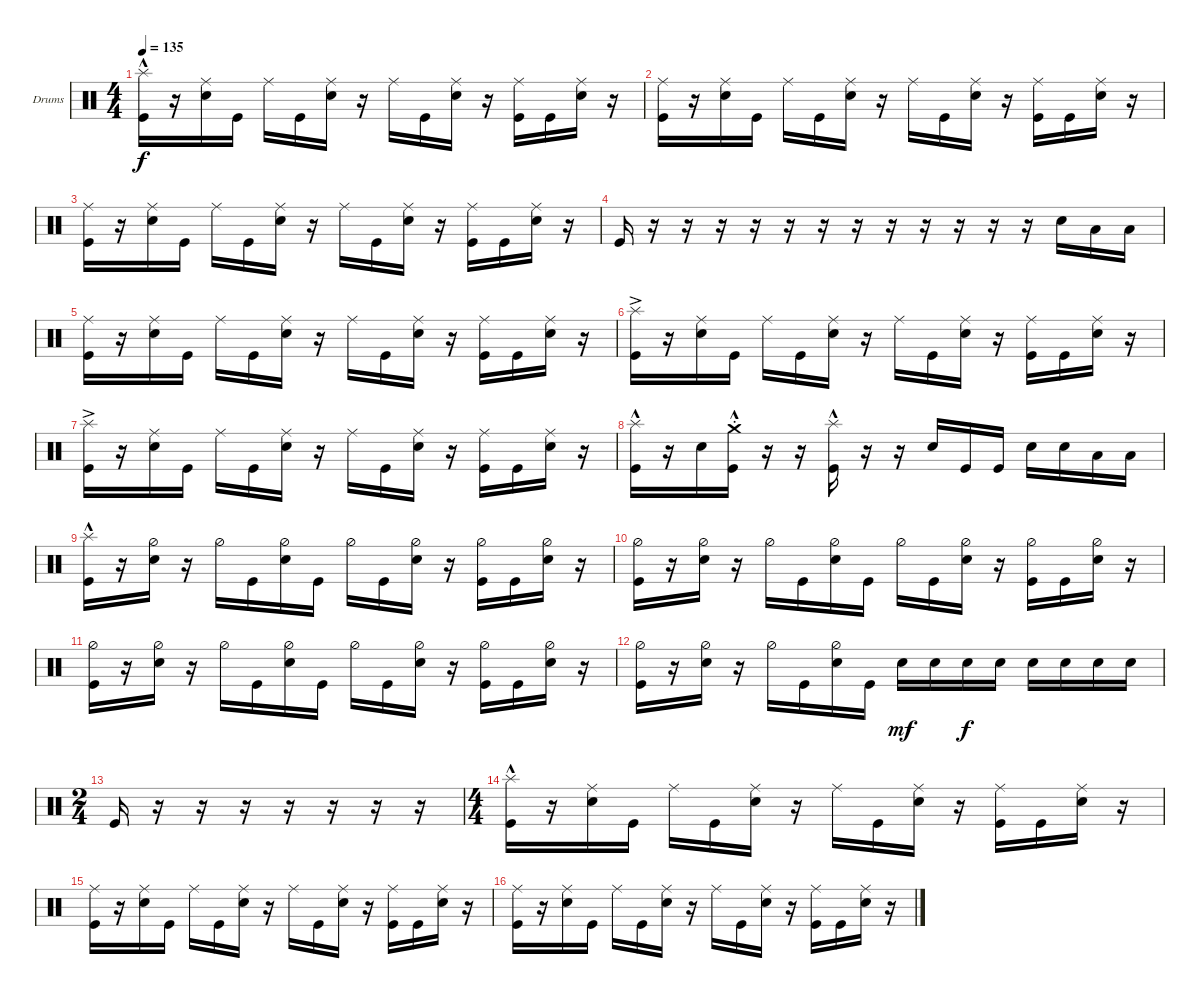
\defaultSystemsLayout 4
\bracketExtendMode groupsimilarinstruments
\firstSystemTrackNameOrientation horizontal
\otherSystemsTrackNameOrientation horizontal
\track ("Drumkit" "Drums") {instrument percussion}
\staff {score}
\articulation defaults
\ts (4 4)
\tempo 135
\clef neutral
\ks c
("Kick (hit)" "Splash (hit)"{hac}).16{dy f} r.16 ("Snare (hit) 2" "Ride (middle)").16 "Kick (hit)".16 "Ride (middle)".16 "Kick (hit)".16 ("Snare (hit) 2" "Ride (middle)").16 r.16 "Ride (middle)".16 "Kick (hit)".16 ("Snare (hit) 2" "Ride (middle)").16 r.16 ("Kick (hit)" "Ride (middle)").16 "Kick (hit)".16 ("Snare (hit) 2" "Ride (middle)").16 r.16 |
("Kick (hit)" "Ride (middle)").16 r.16 ("Snare (hit) 2" "Ride (middle)").16 "Kick (hit)".16 "Ride (middle)".16 "Kick (hit)".16 ("Snare (hit) 2" "Ride (middle)").16 r.16 "Ride (middle)".16 "Kick (hit)".16 ("Snare (hit) 2" "Ride (middle)").16 r.16 ("Kick (hit)" "Ride (middle)").16 "Kick (hit)".16 ("Snare (hit) 2" "Ride (middle)").16 r.16 |
("Kick (hit)" "Ride (middle)").16 r.16 ("Snare (hit) 2" "Ride (middle)").16 "Kick (hit)".16 "Ride (middle)".16 "Kick (hit)".16 ("Snare (hit) 2" "Ride (middle)").16 r.16 "Ride (middle)".16 "Kick (hit)".16 ("Snare (hit) 2" "Ride (middle)").16 r.16 ("Kick (hit)" "Ride (middle)").16 "Kick (hit)".16 ("Snare (hit) 2" "Ride (middle)").16 r.16 |
"Kick (hit)".16 r.16 r.16 r.16 r.16 r.16 r.16 r.16 r.16 r.16 r.16 r.16 r.16 "Snare (hit) 2".16 "Low Tom (hit)".16 "Low Tom (hit)".16 |
("Kick (hit)" "Ride (middle)").16 r.16 ("Snare (hit) 2" "Ride (middle)").16 "Kick (hit)".16 "Ride (middle)".16 "Kick (hit)".16 ("Snare (hit) 2" "Ride (middle)").16 r.16 "Ride (middle)".16 "Kick (hit)".16 ("Snare (hit) 2" "Ride (middle)").16 r.16 ("Kick (hit)" "Ride (middle)").16 "Kick (hit)".16 ("Snare (hit) 2" "Ride (middle)").16 r.16 |
("Kick (hit)" "Splash (hit)"{ac}).16 r.16 ("Snare (hit) 2" "Ride (middle)").16 "Kick (hit)".16 "Ride (middle)".16 "Kick (hit)".16 ("Snare (hit) 2" "Ride (middle)").16 r.16 "Ride (middle)".16 "Kick (hit)".16 ("Snare (hit) 2" "Ride (middle)").16 r.16 ("Kick (hit)" "Ride (middle)").16 "Kick (hit)".16 ("Snare (hit) 2" "Ride (middle)").16 r.16 |
("Kick (hit)" "Splash (hit)"{ac}).16 r.16 ("Snare (hit) 2" "Ride (middle)").16 "Kick (hit)".16 "Ride (middle)".16 "Kick (hit)".16 ("Snare (hit) 2" "Ride (middle)").16 r.16 "Ride (middle)".16 "Kick (hit)".16 ("Snare (hit) 2" "Ride (middle)").16 r.16 ("Kick (hit)" "Ride (middle)").16 "Kick (hit)".16 ("Snare (hit) 2" "Ride (middle)").16 r.16 |
("Kick (hit)" "Splash (hit)"{hac}).16 r.16 "Snare (hit) 2".16 ("Kick (hit)" "Crash medium (hit)"{hac st}).16 r.16 r.16 ("Kick (hit)" "Splash (hit)"{hac}).16 r.16 r.16 "Snare (hit) 2".16 "Kick (hit)".16 "Kick (hit)".16 "Snare (hit) 2".16 "Snare (hit) 2".16 "Low Tom (hit)".16 "Low Tom (hit)".16 |
("Kick (hit)" "Splash (hit)"{hac}).16 r.16 ("Snare (hit) 2" "Hi-Hat (half)").16 r.16 "Hi-Hat (half)".16 "Kick (hit)".16 ("Snare (hit) 2" "Hi-Hat (half)").16 "Kick (hit)".16 "Hi-Hat (half)".16 "Kick (hit)".16 ("Snare (hit) 2" "Hi-Hat (half)").16 r.16 ("Kick (hit)" "Hi-Hat (half)").16 "Kick (hit)".16 ("Snare (hit) 2" "Hi-Hat (half)").16 r.16 |
("Kick (hit)" "Hi-Hat (half)").16 r.16 ("Snare (hit) 2" "Hi-Hat (half)").16 r.16 "Hi-Hat (half)".16 "Kick (hit)".16 ("Snare (hit) 2" "Hi-Hat (half)").16 "Kick (hit)".16 "Hi-Hat (half)".16 "Kick (hit)".16 ("Snare (hit) 2" "Hi-Hat (half)").16 r.16 ("Kick (hit)" "Hi-Hat (half)").16 "Kick (hit)".16 ("Snare (hit) 2" "Hi-Hat (half)").16 r.16 |
("Kick (hit)" "Hi-Hat (half)").16 r.16 ("Snare (hit) 2" "Hi-Hat (half)").16 r.16 "Hi-Hat (half)".16 "Kick (hit)".16 ("Snare (hit) 2" "Hi-Hat (half)").16 "Kick (hit)".16 "Hi-Hat (half)".16 "Kick (hit)".16 ("Snare (hit) 2" "Hi-Hat (half)").16 r.16 ("Kick (hit)" "Hi-Hat (half)").16 "Kick (hit)".16 ("Snare (hit) 2" "Hi-Hat (half)").16 r.16 |
("Kick (hit)" "Hi-Hat (half)").16 r.16 ("Snare (hit) 2" "Hi-Hat (half)").16 r.16 "Hi-Hat (half)".16 "Kick (hit)".16 ("Snare (hit) 2" "Hi-Hat (half)").16 "Kick (hit)".16 "Snare (hit) 2".16{dy mf} "Snare (hit) 2".16 "Snare (hit) 2".16{dy f} "Snare (hit) 2".16 "Snare (hit) 2".16 "Snare (hit) 2".16 "Snare (hit) 2".16 "Snare (hit) 2".16 |
\ts (2 4)
"Kick (hit)".16 r.16 r.16 r.16 r.16 r.16 r.16 r.16 |
\ts (4 4)
("Kick (hit)" "Splash (hit)"{hac}).16 r.16 ("Snare (hit) 2" "Ride (middle)").16 "Kick (hit)".16 "Ride (middle)".16 "Kick (hit)".16 ("Snare (hit) 2" "Ride (middle)").16 r.16 "Ride (middle)".16 "Kick (hit)".16 ("Snare (hit) 2" "Ride (middle)").16 r.16 ("Kick (hit)" "Ride (middle)").16 "Kick (hit)".16 ("Snare (hit) 2" "Ride (middle)").16 r.16 |
("Kick (hit)" "Ride (middle)").16 r.16 ("Snare (hit) 2" "Ride (middle)").16 "Kick (hit)".16 "Ride (middle)".16 "Kick (hit)".16 ("Snare (hit) 2" "Ride (middle)").16 r.16 "Ride (middle)".16 "Kick (hit)".16 ("Snare (hit) 2" "Ride (middle)").16 r.16 ("Kick (hit)" "Ride (middle)").16 "Kick (hit)".16 ("Snare (hit) 2" "Ride (middle)").16 r.16 |
("Kick (hit)" "Ride (middle)").16 r.16 ("Snare (hit) 2" "Ride (middle)").16 "Kick (hit)".16 "Ride (middle)".16 "Kick (hit)".16 ("Snare (hit) 2" "Ride (middle)").16 r.16 "Ride (middle)".16 "Kick (hit)".16 ("Snare (hit) 2" "Ride (middle)").16 r.16 ("Kick (hit)" "Ride (middle)").16 "Kick (hit)".16 ("Snare (hit) 2" "Ride (middle)").16 r.16
